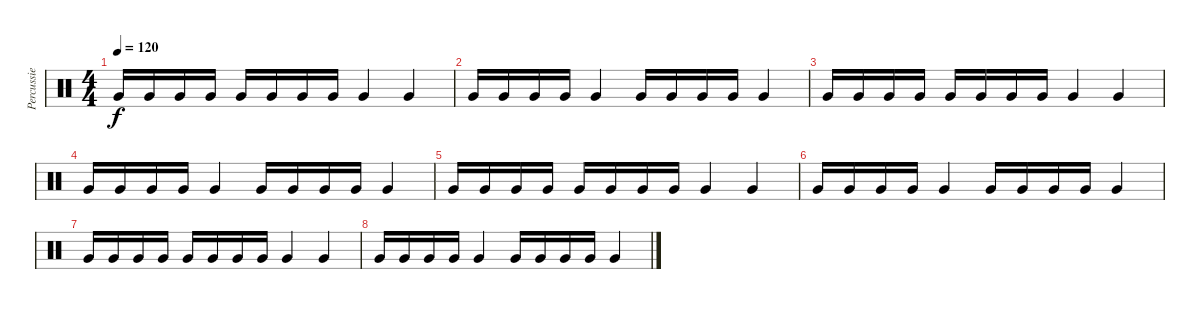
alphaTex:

\track ("Percussie" "Percussie") {instrument percussion}
\staff {score}
\articulation defaults
\ts (4 4)
\tempo 120
\clef neutral
\ks c "Very Low Tom (hit)".16{dy f} "Very Low Tom (hit)".16 "Very Low Tom (hit)".16 "Very Low Tom (hit)".16 "Very Low Tom (hit)".16 "Very Low Tom (hit)".16 "Very Low Tom (hit)".16 "Very Low Tom (hit)".16 "Very Low Tom (hit)".4 "Very Low Tom (hit)".4
|
"Very Low Tom (hit)".16 "Very Low Tom (hit)".16 "Very Low Tom (hit)".16 "Very Low Tom (hit)".16 "Very Low Tom (hit)".4 "Very Low Tom (hit)".16 "Very Low Tom (hit)".16 "Very Low Tom (hit)".16 "Very Low Tom (hit)".16 "Very Low Tom (hit)".4 |
"Very Low Tom (hit)".16 "Very Low Tom (hit)".16 "Very Low Tom (hit)".16 "Very Low Tom (hit)".16 "Very Low Tom (hit)".16 "Very Low Tom (hit)".16 "Very Low Tom (hit)".16 "Very Low Tom (hit)".16 "Very Low Tom (hit)".4 "Very Low Tom (hit)".4 |
"Very Low Tom (hit)".16 "Very Low Tom (hit)".16 "Very Low Tom (hit)".16 "Very Low Tom (hit)".16 "Very Low Tom (hit)".4 "Very Low Tom (hit)".16 "Very Low Tom (hit)".16 "Very Low Tom (hit)".16 "Very Low Tom (hit)".16 "Very Low Tom (hit)".4 |
"Very Low Tom (hit)".16 "Very Low Tom (hit)".16 "Very Low Tom (hit)".16 "Very Low Tom (hit)".16 "Very Low Tom (hit)".16 "Very Low Tom (hit)".16 "Very Low Tom (hit)".16 "Very Low Tom (hit)".16 "Very Low Tom (hit)".4 "Very Low Tom (hit)".4 |
"Very Low Tom (hit)".16 "Very Low Tom (hit)".16 "Very Low Tom (hit)".16 "Very Low Tom (hit)".16 "Very Low Tom (hit)".4 "Very Low Tom (hit)".16 "Very Low Tom (hit)".16 "Very Low Tom (hit)".16 "Very Low Tom (hit)".16 "Very Low Tom (hit)".4 |
"Very Low Tom (hit)".16 "Very Low Tom (hit)".16 "Very Low Tom (hit)".16 "Very Low Tom (hit)".16 "Very Low Tom (hit)".16 "Very Low Tom (hit)".16 "Very Low Tom (hit)".16 "Very Low Tom (hit)".16 "Very Low Tom (hit)".4 "Very Low Tom (hit)".4 |
"Very Low Tom (hit)".16 "Very Low Tom (hit)".16 "Very Low Tom (hit)".16 "Very Low Tom (hit)".16 "Very Low Tom (hit)".4 "Very Low Tom (hit)".16 "Very Low Tom (hit)".16 "Very Low Tom (hit)".16 "Very Low Tom (hit)".16 "Very Low Tom (hit)".4
